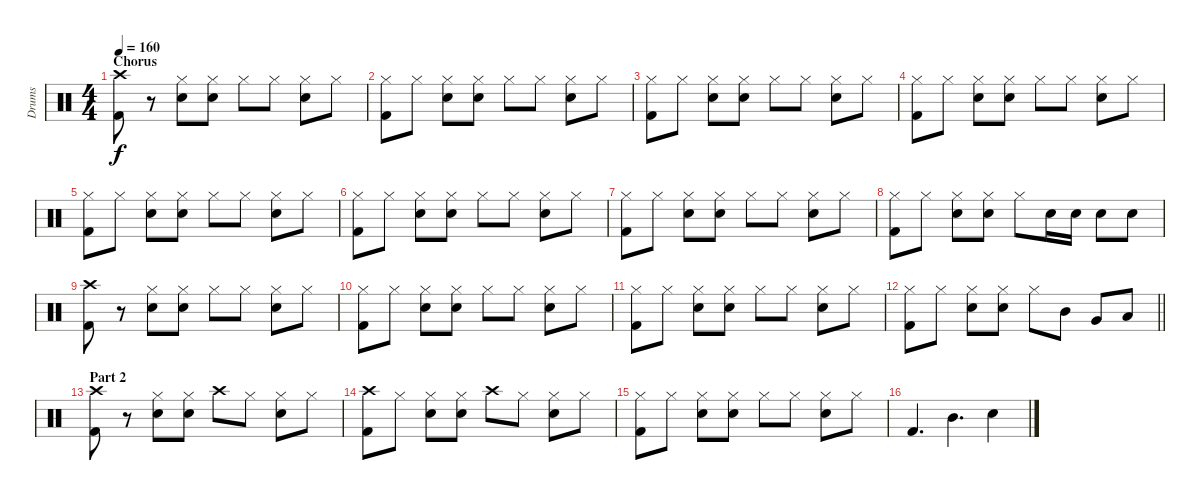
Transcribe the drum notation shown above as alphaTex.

\track ("Drums" "Drums") {instrument percussion}
\staff {score}
\articulation defaults
\ts (4 4)
\section ("" "Chorus")
\tempo 160
\clef neutral
\ks c
("Crash high (hit)" "Kick (hit) 2").8{dy f} r.8 ("Hi-Hat (closed)" "Electric Snare (hit)").8 ("Hi-Hat (closed)" "Electric Snare (hit)").8 "Hi-Hat (closed)".8 "Hi-Hat (closed)".8 ("Hi-Hat (closed)" "Electric Snare (hit)").8 "Hi-Hat (closed)".8 |
("Hi-Hat (closed)" "Kick (hit) 2").8 "Hi-Hat (closed)".8 ("Hi-Hat (closed)" "Electric Snare (hit)").8 ("Hi-Hat (closed)" "Electric Snare (hit)").8 "Hi-Hat (closed)".8 "Hi-Hat (closed)".8 ("Hi-Hat (closed)" "Electric Snare (hit)").8 "Hi-Hat (closed)".8 |
("Hi-Hat (closed)" "Kick (hit) 2").8 "Hi-Hat (closed)".8 ("Hi-Hat (closed)" "Electric Snare (hit)").8 ("Hi-Hat (closed)" "Electric Snare (hit)").8 "Hi-Hat (closed)".8 "Hi-Hat (closed)".8 ("Hi-Hat (closed)" "Electric Snare (hit)").8 "Hi-Hat (closed)".8 |
("Hi-Hat (closed)" "Kick (hit) 2").8 "Hi-Hat (closed)".8 ("Hi-Hat (closed)" "Electric Snare (hit)").8 ("Hi-Hat (closed)" "Electric Snare (hit)").8 "Hi-Hat (closed)".8 "Hi-Hat (closed)".8 ("Hi-Hat (closed)" "Electric Snare (hit)").8 "Hi-Hat (closed)".8 |
("Hi-Hat (closed)" "Kick (hit) 2").8 "Hi-Hat (closed)".8 ("Hi-Hat (closed)" "Electric Snare (hit)").8 ("Hi-Hat (closed)" "Electric Snare (hit)").8 "Hi-Hat (closed)".8 "Hi-Hat (closed)".8 ("Hi-Hat (closed)" "Electric Snare (hit)").8 "Hi-Hat (closed)".8 |
("Hi-Hat (closed)" "Kick (hit) 2").8 "Hi-Hat (closed)".8 ("Hi-Hat (closed)" "Electric Snare (hit)").8 ("Hi-Hat (closed)" "Electric Snare (hit)").8 "Hi-Hat (closed)".8 "Hi-Hat (closed)".8 ("Hi-Hat (closed)" "Electric Snare (hit)").8 "Hi-Hat (closed)".8 |
("Hi-Hat (closed)" "Kick (hit) 2").8 "Hi-Hat (closed)".8 ("Hi-Hat (closed)" "Electric Snare (hit)").8 ("Hi-Hat (closed)" "Electric Snare (hit)").8 "Hi-Hat (closed)".8 "Hi-Hat (closed)".8 ("Hi-Hat (closed)" "Electric Snare (hit)").8 "Hi-Hat (closed)".8 |
("Hi-Hat (closed)" "Kick (hit) 2").8 "Hi-Hat (closed)".8 ("Hi-Hat (closed)" "Electric Snare (hit)").8 ("Hi-Hat (closed)" "Electric Snare (hit)").8 "Hi-Hat (closed)".8 "Electric Snare (hit)".16 "Electric Snare (hit)".16 "Electric Snare (hit)".8 "Electric Snare (hit)".8 |
("Crash high (hit)" "Kick (hit) 2").8 r.8 ("Hi-Hat (closed)" "Electric Snare (hit)").8 ("Hi-Hat (closed)" "Electric Snare (hit)").8 "Hi-Hat (closed)".8 "Hi-Hat (closed)".8 ("Hi-Hat (closed)" "Electric Snare (hit)").8 "Hi-Hat (closed)".8 |
("Hi-Hat (closed)" "Kick (hit) 2").8 "Hi-Hat (closed)".8 ("Hi-Hat (closed)" "Electric Snare (hit)").8 ("Hi-Hat (closed)" "Electric Snare (hit)").8 "Hi-Hat (closed)".8 "Hi-Hat (closed)".8 ("Hi-Hat (closed)" "Electric Snare (hit)").8 "Hi-Hat (closed)".8 |
("Hi-Hat (closed)" "Kick (hit) 2").8 "Hi-Hat (closed)".8 ("Hi-Hat (closed)" "Electric Snare (hit)").8 ("Hi-Hat (closed)" "Electric Snare (hit)").8 "Hi-Hat (closed)".8 "Hi-Hat (closed)".8 ("Hi-Hat (closed)" "Electric Snare (hit)").8 "Hi-Hat (closed)".8 |
\barLineRight lightlight
("Hi-Hat (closed)" "Kick (hit) 2").8 "Hi-Hat (closed)".8 ("Hi-Hat (closed)" "Electric Snare (hit)").8 ("Hi-Hat (closed)" "Electric Snare (hit)").8 "Hi-Hat (closed)".8 "Mid Tom (hit)".8 "Very Low Tom (hit)".8 "Low Tom (hit)".8 |
\section ("" "Part 2")
("Crash high (hit)" "Kick (hit) 2").8 r.8 ("Hi-Hat (closed)" "Electric Snare (hit)").8 ("Hi-Hat (closed)" "Electric Snare (hit)").8 "Crash high (hit)".8 "Hi-Hat (closed)".8 ("Hi-Hat (closed)" "Electric Snare (hit)").8 "Hi-Hat (closed)".8 |
("Crash high (hit)" "Kick (hit) 2").8 "Hi-Hat (closed)".8 ("Hi-Hat (closed)" "Electric Snare (hit)").8 ("Hi-Hat (closed)" "Electric Snare (hit)").8 "Crash high (hit)".8 "Hi-Hat (closed)".8 ("Hi-Hat (closed)" "Electric Snare (hit)").8 "Hi-Hat (closed)".8 |
("Hi-Hat (closed)" "Kick (hit) 2").8 "Hi-Hat (closed)".8 ("Hi-Hat (closed)" "Electric Snare (hit)").8 ("Hi-Hat (closed)" "Electric Snare (hit)").8 "Hi-Hat (closed)".8 "Hi-Hat (closed)".8 ("Hi-Hat (closed)" "Electric Snare (hit)").8 "Hi-Hat (closed)".8 |
"Kick (hit) 2".4{d} "Mid Tom (hit)".4{d} "Electric Snare (hit)".4
